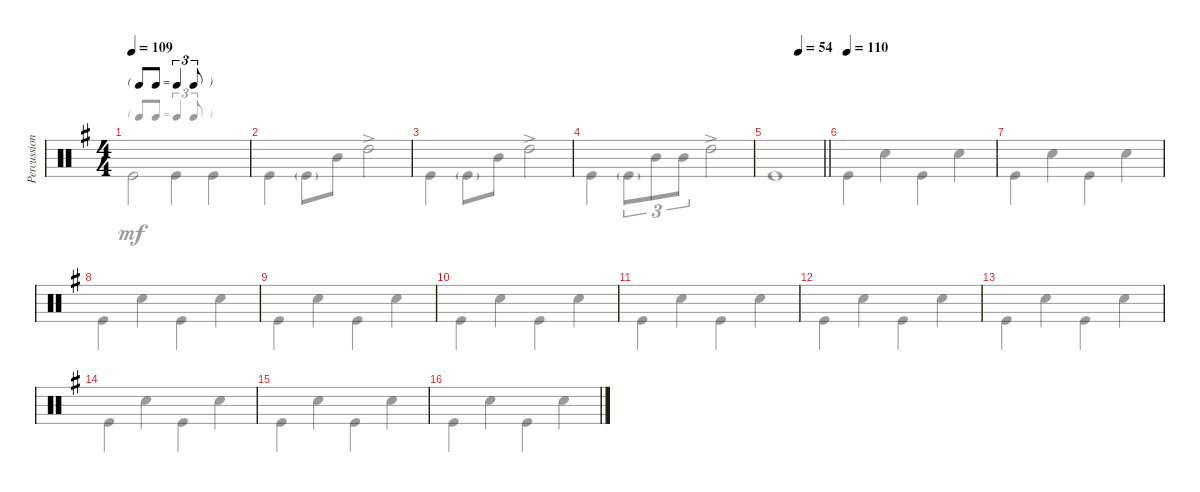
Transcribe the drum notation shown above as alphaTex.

\track ("Percussion" "Percussion") {instrument percussion}
\staff {score}
\articulation defaults
\voice
\ts (4 4)
\tf triplet8th
\tempo 109
\clef neutral
\ks eminor
|
|
|
|
\tempo (54 0.5)
\barLineRight lightlight
|
\tempo 110
|
|
|
|
|
|
|
|
|
|
\voice
\clef neutral
\ks eminor "Kick (hit)".2{dy mf} "Kick (hit)".4 "Kick (hit)".4
|
"Kick (hit)".4 "Kick (hit)"{g}.8 "Mid Tom (hit)".8 "High Tom (hit)"{ac}.2 |
"Kick (hit)".4 "Kick (hit)"{g}.8 "Mid Tom (hit)".8 "High Tom (hit)"{ac}.2 |
"Kick (hit)".4 "Kick (hit)"{g}.8{tu (3 2)} "Mid Tom (hit)".8{tu (3 2)} "Mid Tom (hit)".8{tu (3 2)} "High Tom (hit)"{ac}.2 |
\barLineRight lightlight "Kick (hit)".1
|
"Kick (hit)".4 "Snare (hit) 2".4 "Kick (hit)".4 "Snare (hit) 2".4 |
"Kick (hit)".4 "Snare (hit) 2".4 "Kick (hit)".4 "Snare (hit) 2".4 |
"Kick (hit)".4 "Snare (hit) 2".4 "Kick (hit)".4 "Snare (hit) 2".4 |
"Kick (hit)".4 "Snare (hit) 2".4 "Kick (hit)".4 "Snare (hit) 2".4 |
"Kick (hit)".4 "Snare (hit) 2".4 "Kick (hit)".4 "Snare (hit) 2".4 |
"Kick (hit)".4 "Snare (hit) 2".4 "Kick (hit)".4 "Snare (hit) 2".4 |
"Kick (hit)".4 "Snare (hit) 2".4 "Kick (hit)".4 "Snare (hit) 2".4 |
"Kick (hit)".4 "Snare (hit) 2".4 "Kick (hit)".4 "Snare (hit) 2".4 |
"Kick (hit)".4 "Snare (hit) 2".4 "Kick (hit)".4 "Snare (hit) 2".4 |
"Kick (hit)".4 "Snare (hit) 2".4 "Kick (hit)".4 "Snare (hit) 2".4 |
"Kick (hit)".4 "Snare (hit) 2".4 "Kick (hit)".4 "Snare (hit) 2".4
